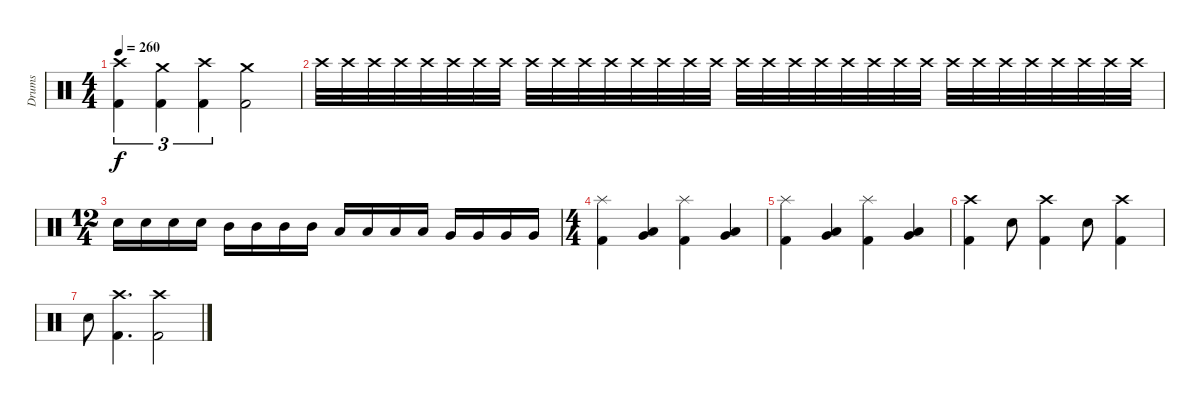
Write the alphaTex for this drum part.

\track ("Drums" "Drums") {instrument percussion}
\staff {score}
\articulation defaults
\ts (4 4)
\tempo 260
\clef neutral
\ks c
("Crash high (hit)" "Kick (hit) 2").4{tu (3 2) dy f} ("Crash medium (hit)" "Kick (hit) 2").4{tu (3 2)} ("Crash high (hit)" "Kick (hit) 2").4{tu (3 2)} ("Crash medium (hit)" "Kick (hit) 2").2 |
"Crash high (hit)".32 "Crash high (hit)".32 "Crash high (hit)".32 "Crash high (hit)".32 "Crash high (hit)".32 "Crash high (hit)".32 "Crash high (hit)".32 "Crash high (hit)".32 "Crash high (hit)".32 "Crash high (hit)".32 "Crash high (hit)".32 "Crash high (hit)".32 "Crash high (hit)".32 "Crash high (hit)".32 "Crash high (hit)".32 "Crash high (hit)".32 "Crash high (hit)".32 "Crash high (hit)".32 "Crash high (hit)".32 "Crash high (hit)".32 "Crash high (hit)".32 "Crash high (hit)".32 "Crash high (hit)".32 "Crash high (hit)".32 "Crash high (hit)".32 "Crash high (hit)".32 "Crash high (hit)".32 "Crash high (hit)".32 "Crash high (hit)".32 "Crash high (hit)".32 "Crash high (hit)".32 "Crash high (hit)".32 |
\ts (12 4)
"Electric Snare (hit)".16 "Electric Snare (hit)".16 "Electric Snare (hit)".16 "Electric Snare (hit)".16 "Mid Tom (hit)".16 "Mid Tom (hit)".16 "Mid Tom (hit)".16 "Mid Tom (hit)".16 "Low Tom (hit)".16 "Low Tom (hit)".16 "Low Tom (hit)".16 "Low Tom (hit)".16 "Very Low Tom (hit)".16 "Very Low Tom (hit)".16 "Very Low Tom (hit)".16 "Very Low Tom (hit)".16 |
\ts (4 4)
("Splash (hit)" "Kick (hit) 2").4 ("Very Low Tom (hit)" "Low Floor Tom (hit)").4 ("Splash (hit)" "Kick (hit) 2").4 ("Very Low Tom (hit)" "Low Floor Tom (hit)").4 |
("Splash (hit)" "Kick (hit) 2").4 ("Very Low Tom (hit)" "Low Floor Tom (hit)").4 ("Splash (hit)" "Kick (hit) 2").4 ("Very Low Tom (hit)" "Low Floor Tom (hit)").4 |
("Crash high (hit)" "Kick (hit) 2").4 "Electric Snare (hit)".8 ("Crash high (hit)" "Kick (hit) 2").4 "Electric Snare (hit)".8 ("Crash high (hit)" "Kick (hit) 2").4 |
"Electric Snare (hit)".8 ("Crash high (hit)" "Kick (hit) 2").4{d} ("Crash high (hit)" "Kick (hit) 2").2
